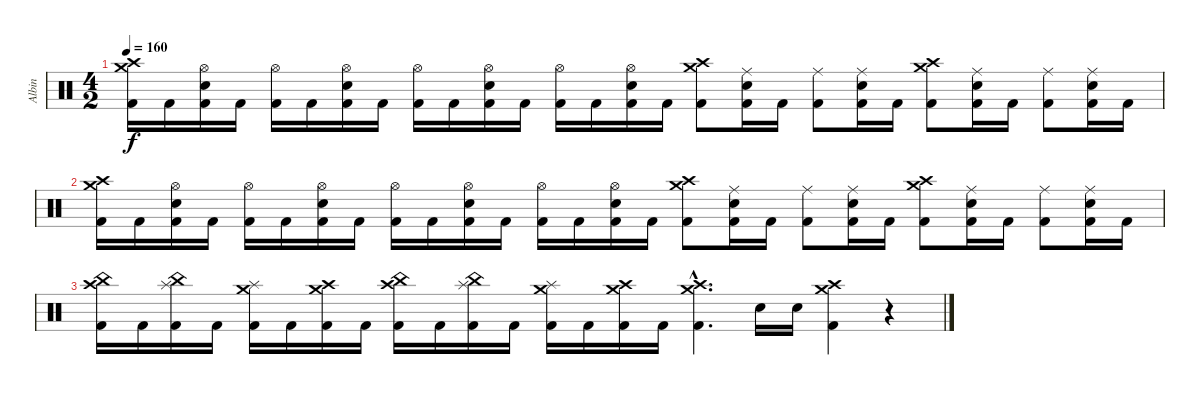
\track ("Albin" "Albin") {instrument percussion}
\staff {score}
\articulation defaults
\ts (4 2)
\tempo 160
\clef neutral
\ks c
("Kick (hit) 2" "Crash high (hit)" "Crash medium (hit)").16{dy f} "Kick (hit) 2".16 ("Kick (hit) 2" "Electric Snare (hit)" "Hi-Hat (open)").16 "Kick (hit) 2".16 ("Kick (hit) 2" "Hi-Hat (open)").16 "Kick (hit) 2".16 ("Kick (hit) 2" "Electric Snare (hit)" "Hi-Hat (open)").16 "Kick (hit) 2".16 ("Kick (hit) 2" "Hi-Hat (open)").16 "Kick (hit) 2".16 ("Kick (hit) 2" "Electric Snare (hit)" "Hi-Hat (open)").16 "Kick (hit) 2".16 ("Kick (hit) 2" "Hi-Hat (open)").16 "Kick (hit) 2".16 ("Kick (hit) 2" "Electric Snare (hit)" "Hi-Hat (open)").16 "Kick (hit) 2".16 ("Kick (hit) 2" "Crash medium (hit)" "Crash high (hit)").8 ("Kick (hit) 2" "Electric Snare (hit)" "Ride (middle)").16 "Kick (hit) 2".16 ("Kick (hit) 2" "Ride (middle)").8 ("Kick (hit) 2" "Electric Snare (hit)" "Ride (middle)").16 "Kick (hit) 2".16 ("Kick (hit) 2" "Crash high (hit)" "Crash medium (hit)").8 ("Kick (hit) 2" "Electric Snare (hit)" "Ride (middle)").16 "Kick (hit) 2".16 ("Kick (hit) 2" "Ride (middle)").8 ("Kick (hit) 2" "Electric Snare (hit)" "Ride (middle)").16 "Kick (hit) 2".16 |
("Kick (hit) 2" "Crash high (hit)" "Crash medium (hit)").16 "Kick (hit) 2".16 ("Kick (hit) 2" "Electric Snare (hit)" "Hi-Hat (open)").16 "Kick (hit) 2".16 ("Kick (hit) 2" "Hi-Hat (open)").16 "Kick (hit) 2".16 ("Kick (hit) 2" "Electric Snare (hit)" "Hi-Hat (open)").16 "Kick (hit) 2".16 ("Kick (hit) 2" "Hi-Hat (open)").16 "Kick (hit) 2".16 ("Kick (hit) 2" "Electric Snare (hit)" "Hi-Hat (open)").16 "Kick (hit) 2".16 ("Kick (hit) 2" "Hi-Hat (open)").16 "Kick (hit) 2".16 ("Kick (hit) 2" "Electric Snare (hit)" "Hi-Hat (open)").16 "Kick (hit) 2".16 ("Kick (hit) 2" "Crash medium (hit)" "Crash high (hit)").8 ("Kick (hit) 2" "Electric Snare (hit)" "Ride (middle)").16 "Kick (hit) 2".16 ("Kick (hit) 2" "Ride (middle)").8 ("Kick (hit) 2" "Electric Snare (hit)" "Ride (middle)").16 "Kick (hit) 2".16 ("Kick (hit) 2" "Crash high (hit)" "Crash medium (hit)").8 ("Kick (hit) 2" "Electric Snare (hit)" "Ride (middle)").16 "Kick (hit) 2".16 ("Kick (hit) 2" "Ride (middle)").8 ("Kick (hit) 2" "Electric Snare (hit)" "Ride (middle)").16 "Kick (hit) 2".16 |
("Kick (hit) 2" "Crash high (hit)" "China (hit)").16 "Kick (hit) 2".16 ("Kick (hit) 2" "China (hit)" "Splash (hit)").16 "Kick (hit) 2".16 ("Kick (hit) 2" "Splash (hit)" "Crash medium (hit)").16 "Kick (hit) 2".16 ("Kick (hit) 2" "Crash medium (hit)" "Crash high (hit)").16 "Kick (hit) 2".16 ("Kick (hit) 2" "Crash high (hit)" "China (hit)").16 "Kick (hit) 2".16 ("Kick (hit) 2" "China (hit)" "Splash (hit)").16 "Kick (hit) 2".16 ("Kick (hit) 2" "Splash (hit)" "Crash medium (hit)").16 "Kick (hit) 2".16 ("Kick (hit) 2" "Crash medium (hit)" "Crash high (hit)").16 "Kick (hit) 2".16 ("Kick (hit) 2"{hac} "Crash medium (hit)"{hac} "Crash high (hit)"{hac}).4{d} "Electric Snare (hit)".16 "Electric Snare (hit)".16 ("Kick (hit) 2" "Crash high (hit)" "Crash medium (hit)").4 r.4
